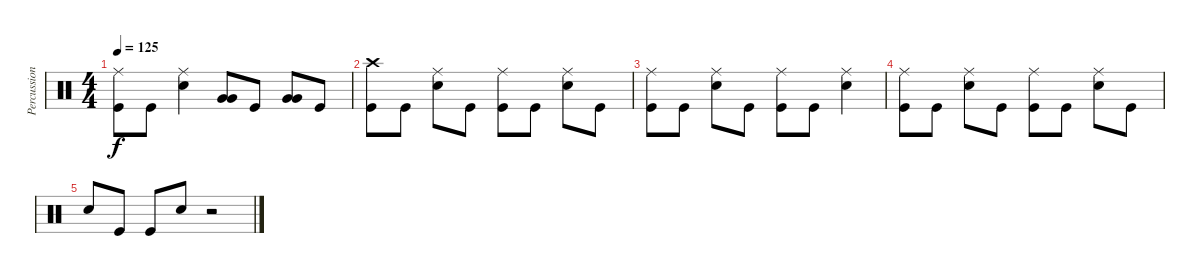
\track ("Percussion" "Percussion") {instrument percussion}
\staff {score}
\articulation defaults
\ts (4 4)
\tempo 125
\clef neutral
\ks c
("Ride (middle)" "Kick (hit)").8{dy f} "Kick (hit)".8 ("Ride (middle)" "Snare (hit) 2").4 ("Very Low Tom (hit)" "Very Low Tom (hit)").8 "Kick (hit)".8 ("Very Low Tom (hit)" "Very Low Tom (hit)").8 "Kick (hit)".8 |
("Crash high (hit)" "Kick (hit)").8 "Kick (hit)".8 ("Ride (middle)" "Snare (hit) 2").8 "Kick (hit)".8 ("Ride (middle)" "Kick (hit)").8 "Kick (hit)".8 ("Ride (middle)" "Snare (hit) 2").8 "Kick (hit)".8 |
("Ride (middle)" "Kick (hit)").8 "Kick (hit)".8 ("Ride (middle)" "Snare (hit) 2").8 "Kick (hit)".8 ("Ride (middle)" "Kick (hit)").8 "Kick (hit)".8 ("Ride (middle)" "Snare (hit) 2").4 |
("Ride (middle)" "Kick (hit)").8 "Kick (hit)".8 ("Ride (middle)" "Snare (hit) 2").8 "Kick (hit)".8 ("Ride (middle)" "Kick (hit)").8 "Kick (hit)".8 ("Ride (middle)" "Snare (hit) 2").8 "Kick (hit)".8 |
"Snare (hit) 2".8 "Kick (hit)".8 "Kick (hit)".8 "Snare (hit) 2".8 r.2
